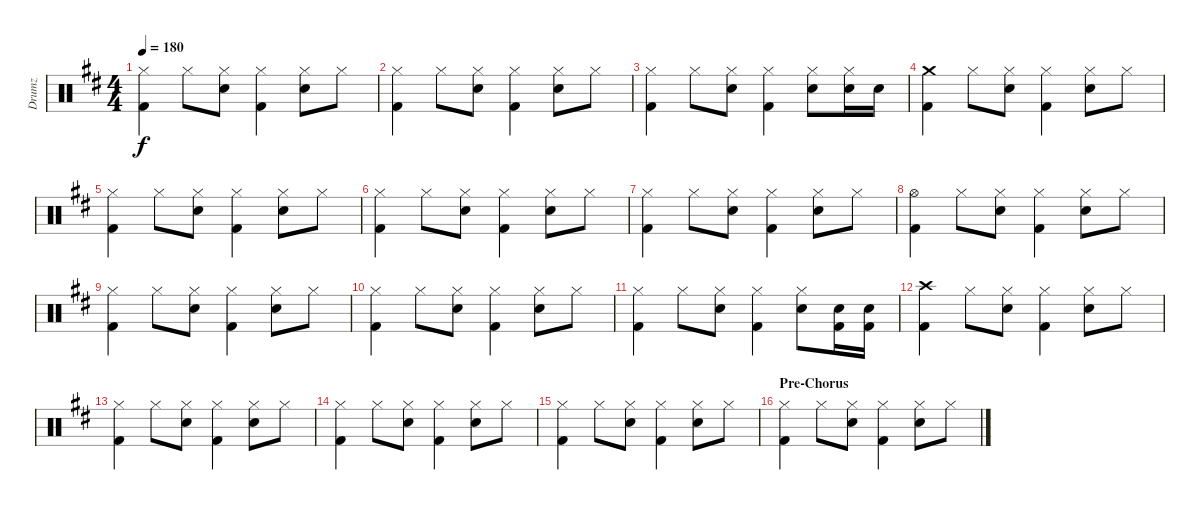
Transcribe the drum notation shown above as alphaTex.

\track ("Drumz" "Drumz") {instrument percussion}
\staff {score}
\articulation defaults
\ts (4 4)
\tempo 180
\clef neutral
\ks d
("Hi-Hat (closed)" "Kick (hit) 2").4{dy f} "Hi-Hat (closed)".8 ("Hi-Hat (closed)" "Snare (hit) 2").8 ("Hi-Hat (closed)" "Kick (hit) 2").4 ("Hi-Hat (closed)" "Snare (hit) 2").8 "Hi-Hat (closed)".8 |
("Hi-Hat (closed)" "Kick (hit) 2").4 "Hi-Hat (closed)".8 ("Hi-Hat (closed)" "Snare (hit) 2").8 ("Hi-Hat (closed)" "Kick (hit) 2").4 ("Hi-Hat (closed)" "Snare (hit) 2").8 "Hi-Hat (closed)".8 |
("Hi-Hat (closed)" "Kick (hit) 2").4 "Hi-Hat (closed)".8 ("Hi-Hat (closed)" "Snare (hit) 2").8 ("Hi-Hat (closed)" "Kick (hit) 2").4 ("Hi-Hat (closed)" "Snare (hit) 2").8 ("Hi-Hat (closed)" "Snare (hit) 2").16 "Snare (hit) 2".16 |
("Crash medium (hit)" "Kick (hit) 2").4 "Hi-Hat (closed)".8 ("Hi-Hat (closed)" "Snare (hit) 2").8 ("Hi-Hat (closed)" "Kick (hit) 2").4 ("Hi-Hat (closed)" "Snare (hit) 2").8 "Hi-Hat (closed)".8 |
("Hi-Hat (closed)" "Kick (hit) 2").4 "Hi-Hat (closed)".8 ("Hi-Hat (closed)" "Snare (hit) 2").8 ("Hi-Hat (closed)" "Kick (hit) 2").4 ("Hi-Hat (closed)" "Snare (hit) 2").8 "Hi-Hat (closed)".8 |
("Hi-Hat (closed)" "Kick (hit) 2").4 "Hi-Hat (closed)".8 ("Hi-Hat (closed)" "Snare (hit) 2").8 ("Hi-Hat (closed)" "Kick (hit) 2").4 ("Hi-Hat (closed)" "Snare (hit) 2").8 "Hi-Hat (closed)".8 |
("Hi-Hat (closed)" "Kick (hit) 2").4 "Hi-Hat (closed)".8 ("Hi-Hat (closed)" "Snare (hit) 2").8 ("Hi-Hat (closed)" "Kick (hit) 2").4 ("Hi-Hat (closed)" "Snare (hit) 2").8 "Hi-Hat (closed)".8 |
("Hi-Hat (open)" "Kick (hit) 2").4 "Hi-Hat (closed)".8 ("Hi-Hat (closed)" "Snare (hit) 2").8 ("Hi-Hat (closed)" "Kick (hit) 2").4 ("Hi-Hat (closed)" "Snare (hit) 2").8 "Hi-Hat (closed)".8 |
("Hi-Hat (closed)" "Kick (hit) 2").4 "Hi-Hat (closed)".8 ("Hi-Hat (closed)" "Snare (hit) 2").8 ("Hi-Hat (closed)" "Kick (hit) 2").4 ("Hi-Hat (closed)" "Snare (hit) 2").8 "Hi-Hat (closed)".8 |
("Hi-Hat (closed)" "Kick (hit) 2").4 "Hi-Hat (closed)".8 ("Hi-Hat (closed)" "Snare (hit) 2").8 ("Hi-Hat (closed)" "Kick (hit) 2").4 ("Hi-Hat (closed)" "Snare (hit) 2").8 "Hi-Hat (closed)".8 |
("Hi-Hat (closed)" "Kick (hit) 2").4 "Hi-Hat (closed)".8 ("Hi-Hat (closed)" "Snare (hit) 2").8 ("Hi-Hat (closed)" "Kick (hit) 2").4 ("Hi-Hat (closed)" "Snare (hit) 2").8 ("Kick (hit) 2" "Snare (hit) 2").16 ("Kick (hit) 2" "Snare (hit) 2").16 |
("Crash high (hit)" "Kick (hit) 2").4 "Hi-Hat (closed)".8 ("Hi-Hat (closed)" "Snare (hit) 2").8 ("Hi-Hat (closed)" "Kick (hit) 2").4 ("Hi-Hat (closed)" "Snare (hit) 2").8 "Hi-Hat (closed)".8 |
("Hi-Hat (closed)" "Kick (hit) 2").4 "Hi-Hat (closed)".8 ("Hi-Hat (closed)" "Snare (hit) 2").8 ("Hi-Hat (closed)" "Kick (hit) 2").4 ("Hi-Hat (closed)" "Snare (hit) 2").8 "Hi-Hat (closed)".8 |
("Hi-Hat (closed)" "Kick (hit) 2").4 "Hi-Hat (closed)".8 ("Hi-Hat (closed)" "Snare (hit) 2").8 ("Hi-Hat (closed)" "Kick (hit) 2").4 ("Hi-Hat (closed)" "Snare (hit) 2").8 "Hi-Hat (closed)".8 |
("Hi-Hat (closed)" "Kick (hit) 2").4 "Hi-Hat (closed)".8 ("Hi-Hat (closed)" "Snare (hit) 2").8 ("Hi-Hat (closed)" "Kick (hit) 2").4 ("Hi-Hat (closed)" "Snare (hit) 2").8 "Hi-Hat (closed)".8 |
\section ("" "Pre-Chorus")
("Hi-Hat (closed)" "Kick (hit) 2").4 "Hi-Hat (closed)".8 ("Hi-Hat (closed)" "Snare (hit) 2").8 ("Hi-Hat (closed)" "Kick (hit) 2").4 ("Hi-Hat (closed)" "Snare (hit) 2").8 "Hi-Hat (closed)".8
